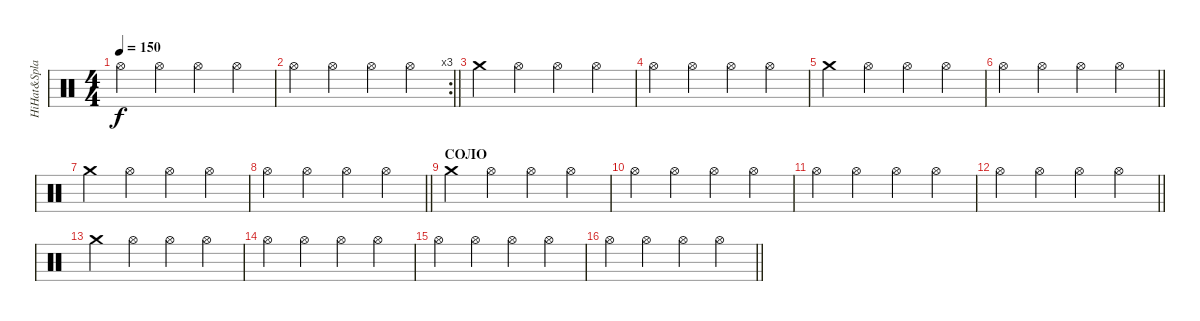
\track ("HiHat&Splash" "HiHat&Spla") {instrument percussion}
\staff {score}
\articulation defaults
\ts (4 4)
\tempo 150
\clef neutral
\ks c "Hi-Hat (open)".4{dy f} "Hi-Hat (open)".4 "Hi-Hat (open)".4 "Hi-Hat (open)".4
|
\rc 3
\barLineRight lightlight "Hi-Hat (open)".4 "Hi-Hat (open)".4 "Hi-Hat (open)".4 "Hi-Hat (open)".4
|
"Crash medium (hit)".4 "Hi-Hat (open)".4 "Hi-Hat (open)".4 "Hi-Hat (open)".4 |
"Hi-Hat (open)".4 "Hi-Hat (open)".4 "Hi-Hat (open)".4 "Hi-Hat (open)".4 |
"Crash medium (hit)".4 "Hi-Hat (open)".4 "Hi-Hat (open)".4 "Hi-Hat (open)".4 |
\barLineRight lightlight "Hi-Hat (open)".4 "Hi-Hat (open)".4 "Hi-Hat (open)".4 "Hi-Hat (open)".4
|
"Crash medium (hit)".4 "Hi-Hat (open)".4 "Hi-Hat (open)".4 "Hi-Hat (open)".4 |
\barLineRight lightlight "Hi-Hat (open)".4 "Hi-Hat (open)".4 "Hi-Hat (open)".4 "Hi-Hat (open)".4
|
\section ("" "СОЛО")
"Crash medium (hit)".4 "Hi-Hat (open)".4 "Hi-Hat (open)".4 "Hi-Hat (open)".4 |
"Hi-Hat (open)".4 "Hi-Hat (open)".4 "Hi-Hat (open)".4 "Hi-Hat (open)".4 |
"Hi-Hat (open)".4 "Hi-Hat (open)".4 "Hi-Hat (open)".4 "Hi-Hat (open)".4 |
\barLineRight lightlight "Hi-Hat (open)".4 "Hi-Hat (open)".4 "Hi-Hat (open)".4 "Hi-Hat (open)".4
|
"Crash medium (hit)".4 "Hi-Hat (open)".4 "Hi-Hat (open)".4 "Hi-Hat (open)".4 |
"Hi-Hat (open)".4 "Hi-Hat (open)".4 "Hi-Hat (open)".4 "Hi-Hat (open)".4 |
"Hi-Hat (open)".4 "Hi-Hat (open)".4 "Hi-Hat (open)".4 "Hi-Hat (open)".4 |
\barLineRight lightlight "Hi-Hat (open)".4 "Hi-Hat (open)".4 "Hi-Hat (open)".4 "Hi-Hat (open)".4
